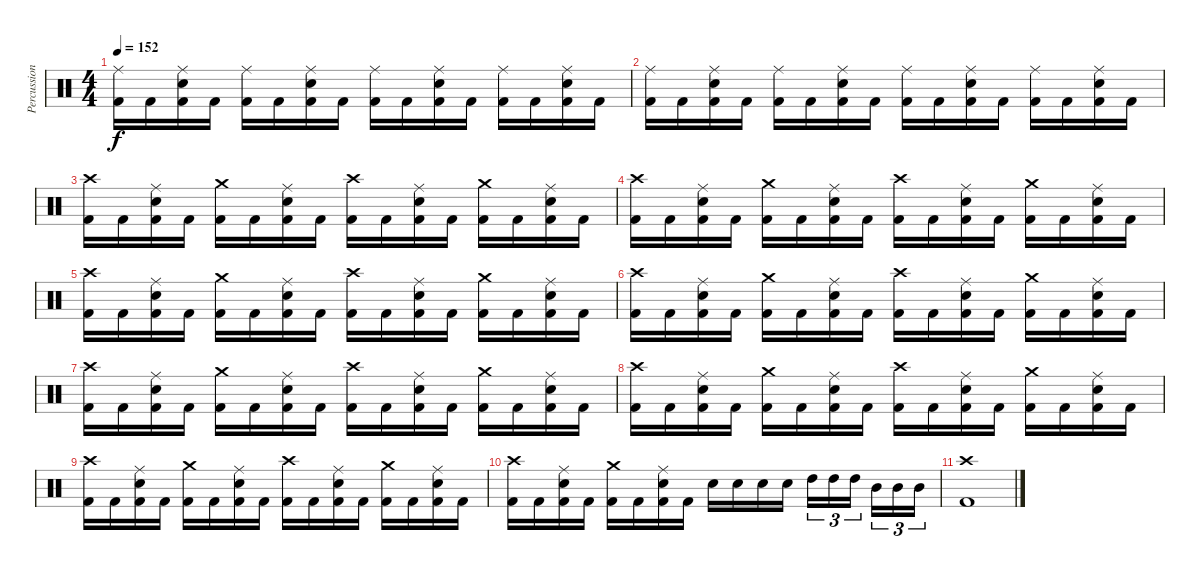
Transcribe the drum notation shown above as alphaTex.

\track ("Percussion" "Percussion") {instrument percussion}
\staff {score}
\articulation defaults
\ts (4 4)
\tempo 152
\clef neutral
\ks c
("Ride (middle)" "Kick (hit) 2").16{dy f} "Kick (hit) 2".16 ("Ride (middle)" "Electric Snare (hit)" "Kick (hit) 2").16 "Kick (hit) 2".16 ("Ride (middle)" "Kick (hit) 2").16 "Kick (hit) 2".16 ("Ride (middle)" "Electric Snare (hit)" "Kick (hit) 2").16 "Kick (hit) 2".16 ("Ride (middle)" "Kick (hit) 2").16 "Kick (hit) 2".16 ("Ride (middle)" "Electric Snare (hit)" "Kick (hit) 2").16 "Kick (hit) 2".16 ("Ride (middle)" "Kick (hit) 2").16 "Kick (hit) 2".16 ("Ride (middle)" "Electric Snare (hit)" "Kick (hit) 2").16 "Kick (hit) 2".16 |
("Ride (middle)" "Kick (hit) 2").16 "Kick (hit) 2".16 ("Ride (middle)" "Electric Snare (hit)" "Kick (hit) 2").16 "Kick (hit) 2".16 ("Ride (middle)" "Kick (hit) 2").16 "Kick (hit) 2".16 ("Ride (middle)" "Electric Snare (hit)" "Kick (hit) 2").16 "Kick (hit) 2".16 ("Ride (middle)" "Kick (hit) 2").16 "Kick (hit) 2".16 ("Ride (middle)" "Electric Snare (hit)" "Kick (hit) 2").16 "Kick (hit) 2".16 ("Ride (middle)" "Kick (hit) 2").16 "Kick (hit) 2".16 ("Ride (middle)" "Electric Snare (hit)" "Kick (hit) 2").16 "Kick (hit) 2".16 |
("Crash high (hit)" "Kick (hit) 2").16 "Kick (hit) 2".16 ("Ride (middle)" "Electric Snare (hit)" "Kick (hit) 2").16 "Kick (hit) 2".16 ("Crash medium (hit)" "Kick (hit) 2").16 "Kick (hit) 2".16 ("Ride (middle)" "Electric Snare (hit)" "Kick (hit) 2").16 "Kick (hit) 2".16 ("Crash high (hit)" "Kick (hit) 2").16 "Kick (hit) 2".16 ("Ride (middle)" "Electric Snare (hit)" "Kick (hit) 2").16 "Kick (hit) 2".16 ("Crash medium (hit)" "Kick (hit) 2").16 "Kick (hit) 2".16 ("Ride (middle)" "Electric Snare (hit)" "Kick (hit) 2").16 "Kick (hit) 2".16 |
("Crash high (hit)" "Kick (hit) 2").16 "Kick (hit) 2".16 ("Ride (middle)" "Electric Snare (hit)" "Kick (hit) 2").16 "Kick (hit) 2".16 ("Crash medium (hit)" "Kick (hit) 2").16 "Kick (hit) 2".16 ("Ride (middle)" "Electric Snare (hit)" "Kick (hit) 2").16 "Kick (hit) 2".16 ("Crash high (hit)" "Kick (hit) 2").16 "Kick (hit) 2".16 ("Ride (middle)" "Electric Snare (hit)" "Kick (hit) 2").16 "Kick (hit) 2".16 ("Crash medium (hit)" "Kick (hit) 2").16 "Kick (hit) 2".16 ("Ride (middle)" "Electric Snare (hit)" "Kick (hit) 2").16 "Kick (hit) 2".16 |
("Crash high (hit)" "Kick (hit) 2").16 "Kick (hit) 2".16 ("Ride (middle)" "Electric Snare (hit)" "Kick (hit) 2").16 "Kick (hit) 2".16 ("Crash medium (hit)" "Kick (hit) 2").16 "Kick (hit) 2".16 ("Ride (middle)" "Electric Snare (hit)" "Kick (hit) 2").16 "Kick (hit) 2".16 ("Crash high (hit)" "Kick (hit) 2").16 "Kick (hit) 2".16 ("Ride (middle)" "Electric Snare (hit)" "Kick (hit) 2").16 "Kick (hit) 2".16 ("Crash medium (hit)" "Kick (hit) 2").16 "Kick (hit) 2".16 ("Ride (middle)" "Electric Snare (hit)" "Kick (hit) 2").16 "Kick (hit) 2".16 |
("Crash high (hit)" "Kick (hit) 2").16 "Kick (hit) 2".16 ("Ride (middle)" "Electric Snare (hit)" "Kick (hit) 2").16 "Kick (hit) 2".16 ("Crash medium (hit)" "Kick (hit) 2").16 "Kick (hit) 2".16 ("Ride (middle)" "Electric Snare (hit)" "Kick (hit) 2").16 "Kick (hit) 2".16 ("Crash high (hit)" "Kick (hit) 2").16 "Kick (hit) 2".16 ("Ride (middle)" "Electric Snare (hit)" "Kick (hit) 2").16 "Kick (hit) 2".16 ("Crash medium (hit)" "Kick (hit) 2").16 "Kick (hit) 2".16 ("Ride (middle)" "Electric Snare (hit)" "Kick (hit) 2").16 "Kick (hit) 2".16 |
("Crash high (hit)" "Kick (hit) 2").16 "Kick (hit) 2".16 ("Ride (middle)" "Electric Snare (hit)" "Kick (hit) 2").16 "Kick (hit) 2".16 ("Crash medium (hit)" "Kick (hit) 2").16 "Kick (hit) 2".16 ("Ride (middle)" "Electric Snare (hit)" "Kick (hit) 2").16 "Kick (hit) 2".16 ("Crash high (hit)" "Kick (hit) 2").16 "Kick (hit) 2".16 ("Ride (middle)" "Electric Snare (hit)" "Kick (hit) 2").16 "Kick (hit) 2".16 ("Crash medium (hit)" "Kick (hit) 2").16 "Kick (hit) 2".16 ("Ride (middle)" "Electric Snare (hit)" "Kick (hit) 2").16 "Kick (hit) 2".16 |
("Crash high (hit)" "Kick (hit) 2").16 "Kick (hit) 2".16 ("Ride (middle)" "Electric Snare (hit)" "Kick (hit) 2").16 "Kick (hit) 2".16 ("Crash medium (hit)" "Kick (hit) 2").16 "Kick (hit) 2".16 ("Ride (middle)" "Electric Snare (hit)" "Kick (hit) 2").16 "Kick (hit) 2".16 ("Crash high (hit)" "Kick (hit) 2").16 "Kick (hit) 2".16 ("Ride (middle)" "Electric Snare (hit)" "Kick (hit) 2").16 "Kick (hit) 2".16 ("Crash medium (hit)" "Kick (hit) 2").16 "Kick (hit) 2".16 ("Ride (middle)" "Electric Snare (hit)" "Kick (hit) 2").16 "Kick (hit) 2".16 |
("Crash high (hit)" "Kick (hit) 2").16 "Kick (hit) 2".16 ("Ride (middle)" "Electric Snare (hit)" "Kick (hit) 2").16 "Kick (hit) 2".16 ("Crash medium (hit)" "Kick (hit) 2").16 "Kick (hit) 2".16 ("Ride (middle)" "Electric Snare (hit)" "Kick (hit) 2").16 "Kick (hit) 2".16 ("Crash high (hit)" "Kick (hit) 2").16 "Kick (hit) 2".16 ("Ride (middle)" "Electric Snare (hit)" "Kick (hit) 2").16 "Kick (hit) 2".16 ("Crash medium (hit)" "Kick (hit) 2").16 "Kick (hit) 2".16 ("Ride (middle)" "Electric Snare (hit)" "Kick (hit) 2").16 "Kick (hit) 2".16 |
("Crash high (hit)" "Kick (hit) 2").16 "Kick (hit) 2".16 ("Ride (middle)" "Electric Snare (hit)" "Kick (hit) 2").16 "Kick (hit) 2".16 ("Crash medium (hit)" "Kick (hit) 2").16 "Kick (hit) 2".16 ("Ride (middle)" "Electric Snare (hit)" "Kick (hit) 2").16 "Kick (hit) 2".16 "Electric Snare (hit)".16 "Electric Snare (hit)".16 "Electric Snare (hit)".16 "Electric Snare (hit)".16 "High Tom (hit)".16{tu (3 2)} "High Tom (hit)".16{tu (3 2)} "High Tom (hit)".16{tu (3 2)} "Mid Tom (hit)".16{tu (3 2)} "Mid Tom (hit)".16{tu (3 2)} "Mid Tom (hit)".16{tu (3 2)} |
("Crash high (hit)" "Kick (hit) 2").1
